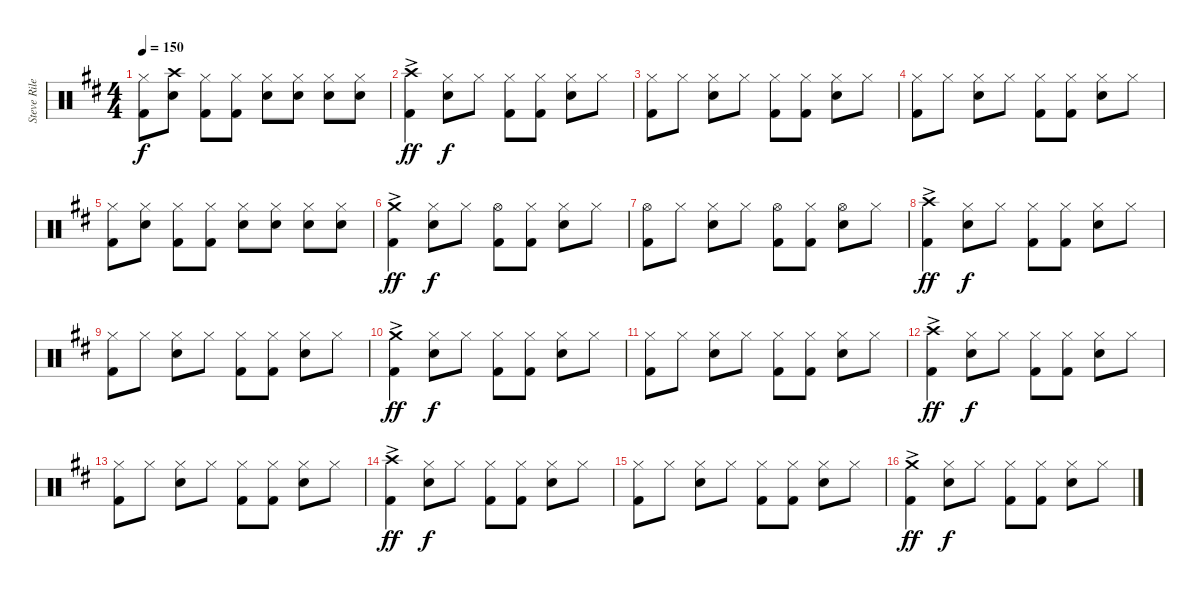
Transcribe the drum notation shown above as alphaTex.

\track ("Steve Riley" "Steve Rile") {instrument percussion}
\staff {score}
\articulation defaults
\ts (4 4)
\tempo 150
\clef neutral
\ks d
("Hi-Hat (closed)" "Kick (hit) 2").8{dy f} ("Crash high (hit)" "Electric Snare (hit)").8 ("Hi-Hat (closed)" "Kick (hit) 2").8 ("Hi-Hat (closed)" "Kick (hit) 2").8 ("Hi-Hat (closed)" "Electric Snare (hit)").8 ("Hi-Hat (closed)" "Electric Snare (hit)").8 ("Hi-Hat (closed)" "Electric Snare (hit)").8 ("Hi-Hat (closed)" "Electric Snare (hit)").8 |
("Crash high (hit)"{ac} "Kick (hit) 2").4{dy ff} ("Hi-Hat (closed)" "Electric Snare (hit)").8{dy f} "Hi-Hat (closed)".8 ("Hi-Hat (closed)" "Kick (hit) 2").8 ("Hi-Hat (closed)" "Kick (hit) 2").8 ("Hi-Hat (closed)" "Electric Snare (hit)").8 "Hi-Hat (closed)".8 |
("Hi-Hat (closed)" "Kick (hit) 2").8 "Hi-Hat (closed)".8 ("Hi-Hat (closed)" "Electric Snare (hit)").8 "Hi-Hat (closed)".8 ("Hi-Hat (closed)" "Kick (hit) 2").8 ("Hi-Hat (closed)" "Kick (hit) 2").8 ("Hi-Hat (closed)" "Electric Snare (hit)").8 "Hi-Hat (closed)".8 |
("Hi-Hat (closed)" "Kick (hit) 2").8 "Hi-Hat (closed)".8 ("Hi-Hat (closed)" "Electric Snare (hit)").8 "Hi-Hat (closed)".8 ("Hi-Hat (closed)" "Kick (hit) 2").8 ("Hi-Hat (closed)" "Kick (hit) 2").8 ("Hi-Hat (closed)" "Electric Snare (hit)").8 "Hi-Hat (closed)".8 |
("Hi-Hat (closed)" "Kick (hit) 2").8 ("Hi-Hat (closed)" "Electric Snare (hit)").8 ("Hi-Hat (closed)" "Kick (hit) 2").8 ("Hi-Hat (closed)" "Kick (hit) 2").8 ("Hi-Hat (closed)" "Electric Snare (hit)").8 ("Hi-Hat (closed)" "Electric Snare (hit)").8 ("Hi-Hat (closed)" "Electric Snare (hit)").8 ("Hi-Hat (closed)" "Electric Snare (hit)").8 |
("Crash medium (hit)"{ac} "Kick (hit) 2").4{dy ff} ("Hi-Hat (closed)" "Electric Snare (hit)").8{dy f} "Hi-Hat (closed)".8 ("Hi-Hat (open)" "Kick (hit) 2").8 ("Hi-Hat (closed)" "Kick (hit) 2").8 ("Hi-Hat (closed)" "Electric Snare (hit)").8 "Hi-Hat (closed)".8 |
("Hi-Hat (open)" "Kick (hit) 2").8 "Hi-Hat (closed)".8 ("Hi-Hat (closed)" "Electric Snare (hit)").8 "Hi-Hat (closed)".8 ("Hi-Hat (open)" "Kick (hit) 2").8 ("Hi-Hat (closed)" "Kick (hit) 2").8 ("Hi-Hat (open)" "Electric Snare (hit)").8 "Hi-Hat (closed)".8 |
("Crash high (hit)"{ac} "Kick (hit) 2").4{dy ff} ("Hi-Hat (closed)" "Electric Snare (hit)").8{dy f} "Hi-Hat (closed)".8 ("Hi-Hat (closed)" "Kick (hit) 2").8 ("Hi-Hat (closed)" "Kick (hit) 2").8 ("Hi-Hat (closed)" "Electric Snare (hit)").8 "Hi-Hat (closed)".8 |
("Hi-Hat (closed)" "Kick (hit) 2").8 "Hi-Hat (closed)".8 ("Hi-Hat (closed)" "Electric Snare (hit)").8 "Hi-Hat (closed)".8 ("Hi-Hat (closed)" "Kick (hit) 2").8 ("Hi-Hat (closed)" "Kick (hit) 2").8 ("Hi-Hat (closed)" "Electric Snare (hit)").8 "Hi-Hat (closed)".8 |
("Crash medium (hit)"{ac} "Kick (hit) 2").4{dy ff} ("Hi-Hat (closed)" "Electric Snare (hit)").8{dy f} "Hi-Hat (closed)".8 ("Hi-Hat (closed)" "Kick (hit) 2").8 ("Hi-Hat (closed)" "Kick (hit) 2").8 ("Hi-Hat (closed)" "Electric Snare (hit)").8 "Hi-Hat (closed)".8 |
("Hi-Hat (closed)" "Kick (hit) 2").8 "Hi-Hat (closed)".8 ("Hi-Hat (closed)" "Electric Snare (hit)").8 "Hi-Hat (closed)".8 ("Hi-Hat (closed)" "Kick (hit) 2").8 ("Hi-Hat (closed)" "Kick (hit) 2").8 ("Hi-Hat (closed)" "Electric Snare (hit)").8 "Hi-Hat (closed)".8 |
("Crash high (hit)"{ac} "Kick (hit) 2").4{dy ff} ("Hi-Hat (closed)" "Electric Snare (hit)").8{dy f} "Hi-Hat (closed)".8 ("Hi-Hat (closed)" "Kick (hit) 2").8 ("Hi-Hat (closed)" "Kick (hit) 2").8 ("Hi-Hat (closed)" "Electric Snare (hit)").8 "Hi-Hat (closed)".8 |
("Hi-Hat (closed)" "Kick (hit) 2").8 "Hi-Hat (closed)".8 ("Hi-Hat (closed)" "Electric Snare (hit)").8 "Hi-Hat (closed)".8 ("Hi-Hat (closed)" "Kick (hit) 2").8 ("Hi-Hat (closed)" "Kick (hit) 2").8 ("Hi-Hat (closed)" "Electric Snare (hit)").8 "Hi-Hat (closed)".8 |
("Crash high (hit)"{ac} "Kick (hit) 2").4{dy ff} ("Hi-Hat (closed)" "Electric Snare (hit)").8{dy f} "Hi-Hat (closed)".8 ("Hi-Hat (closed)" "Kick (hit) 2").8 ("Hi-Hat (closed)" "Kick (hit) 2").8 ("Hi-Hat (closed)" "Electric Snare (hit)").8 "Hi-Hat (closed)".8 |
("Hi-Hat (closed)" "Kick (hit) 2").8 "Hi-Hat (closed)".8 ("Hi-Hat (closed)" "Electric Snare (hit)").8 "Hi-Hat (closed)".8 ("Hi-Hat (closed)" "Kick (hit) 2").8 ("Hi-Hat (closed)" "Kick (hit) 2").8 ("Hi-Hat (closed)" "Electric Snare (hit)").8 "Hi-Hat (closed)".8 |
("Crash medium (hit)"{ac} "Kick (hit) 2").4{dy ff} ("Hi-Hat (closed)" "Electric Snare (hit)").8{dy f} "Hi-Hat (closed)".8 ("Hi-Hat (closed)" "Kick (hit) 2").8 ("Hi-Hat (closed)" "Kick (hit) 2").8 ("Hi-Hat (closed)" "Electric Snare (hit)").8 "Hi-Hat (closed)".8
